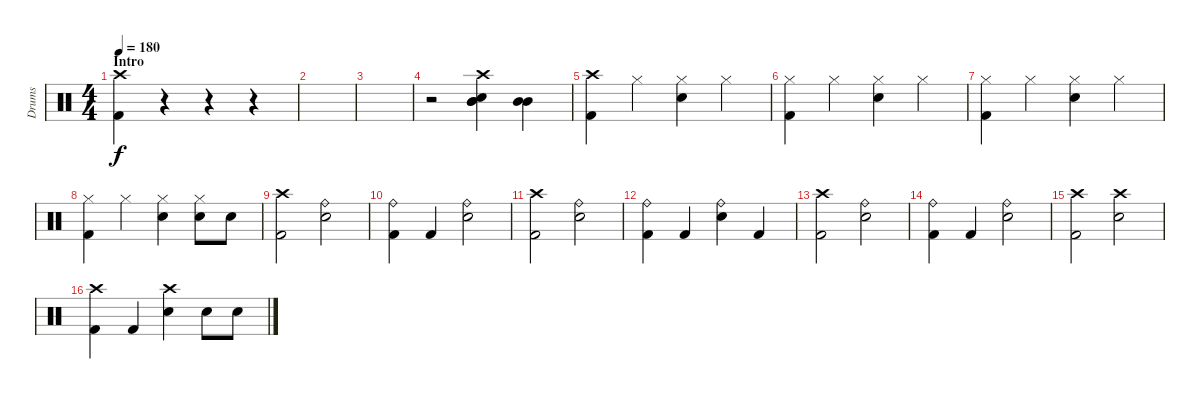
\track ("Drums" "Drums") {instrument percussion}
\staff {score}
\articulation defaults
\ts (4 4)
\section ("" "Intro")
\tempo 180
\clef neutral
\ks c
("Crash high (hit)" "Kick (hit) 2").4{dy f} r.4 r.4 r.4 |
|
|
r.2 ("Crash high (hit)" "Snare (hit) 2" "Mid Tom (hit)" "Mid Tom (hit)").4 ("Mid Tom (hit)" "Mid Tom (hit)").4 |
("Crash high (hit)" "Kick (hit) 2").4 "Hi-Hat (closed)".4 ("Hi-Hat (closed)" "Snare (hit) 2").4 "Hi-Hat (closed)".4 |
("Hi-Hat (closed)" "Kick (hit) 2").4 "Hi-Hat (closed)".4 ("Hi-Hat (closed)" "Snare (hit) 2").4 "Hi-Hat (closed)".4 |
("Hi-Hat (closed)" "Kick (hit) 2").4 "Hi-Hat (closed)".4 ("Hi-Hat (closed)" "Snare (hit) 2").4 "Hi-Hat (closed)".4 |
("Hi-Hat (closed)" "Kick (hit) 2").4 "Hi-Hat (closed)".4 ("Hi-Hat (closed)" "Snare (hit) 2").4 ("Hi-Hat (closed)" "Snare (hit) 2").8 "Snare (hit) 2".8 |
("Crash high (hit)" "Kick (hit) 2").2 ("Ride (bell)" "Snare (hit) 2").2 |
("Ride (bell)" "Kick (hit) 2").4 "Kick (hit) 2".4 ("Ride (bell)" "Snare (hit) 2").2 |
("Crash high (hit)" "Kick (hit) 2").2 ("Ride (bell)" "Snare (hit) 2").2 |
("Ride (bell)" "Kick (hit) 2").4 "Kick (hit) 2".4 ("Ride (bell)" "Snare (hit) 2").4 "Kick (hit) 2".4 |
("Crash high (hit)" "Kick (hit) 2").2 ("Ride (bell)" "Snare (hit) 2").2 |
("Ride (bell)" "Kick (hit) 2").4 "Kick (hit) 2".4 ("Ride (bell)" "Snare (hit) 2").2 |
("Crash high (hit)" "Kick (hit) 2").2 ("Crash high (hit)" "Snare (hit) 2").2 |
("Crash high (hit)" "Kick (hit) 2").4 "Kick (hit) 2".4 ("Crash high (hit)" "Snare (hit) 2").4 "Snare (hit) 2".8 "Snare (hit) 2".8
